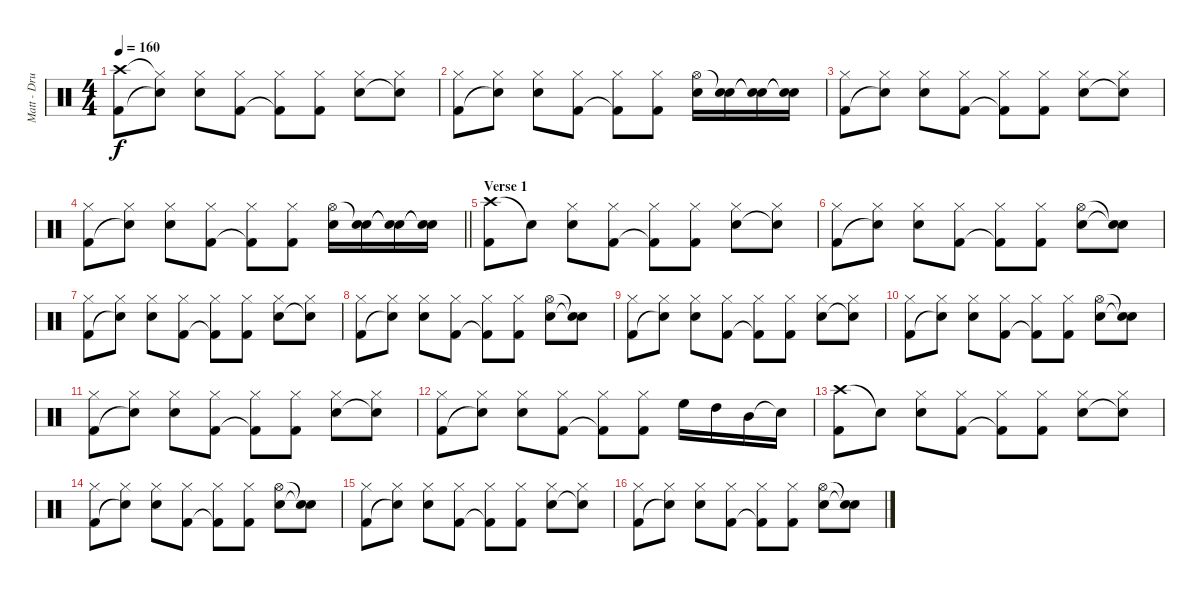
\track ("Matt - Drums" "Matt - Dru") {instrument percussion}
\staff {score}
\articulation defaults
\ts (4 4)
\tempo 160
\clef neutral
\ks c
("Crash high (hit)" "Kick (hit) 2").8{dy f} ("Hi-Hat (closed)"{t} "Snare (hit)"{t}).8 ("Hi-Hat (closed)" "Snare (hit) 2").8 ("Hi-Hat (closed)" "Kick (hit) 2").8 ("Hi-Hat (closed)" "Kick (hit) 2"{t}).8 ("Hi-Hat (closed)" "Kick (hit) 2").8 ("Hi-Hat (closed)" "Snare (hit) 2").8 ("Hi-Hat (closed)" "Snare (hit)"{t}).8 |
("Hi-Hat (closed)" "Kick (hit) 2").8 ("Hi-Hat (closed)" "Snare (hit)"{t}).8 ("Hi-Hat (closed)" "Snare (hit) 2").8 ("Hi-Hat (closed)" "Kick (hit) 2").8 ("Hi-Hat (closed)" "Kick (hit) 2"{t}).8 ("Hi-Hat (closed)" "Kick (hit) 2").8 ("Hi-Hat (open)" "Snare (hit) 2").16 ("Snare (hit)"{t} "Snare (hit) 2").16 ("Snare (hit)"{t} "Snare (hit) 2"{t}).16 ("Snare (hit)"{t} "Snare (hit) 2"{t}).16 |
("Hi-Hat (closed)" "Kick (hit) 2").8 ("Hi-Hat (closed)" "Snare (hit)"{t}).8 ("Hi-Hat (closed)" "Snare (hit) 2").8 ("Hi-Hat (closed)" "Kick (hit) 2").8 ("Hi-Hat (closed)" "Kick (hit) 2"{t}).8 ("Hi-Hat (closed)" "Kick (hit) 2").8 ("Hi-Hat (closed)" "Snare (hit) 2").8 ("Hi-Hat (closed)" "Snare (hit)"{t}).8 |
\barLineRight lightlight
("Hi-Hat (closed)" "Kick (hit) 2").8 ("Hi-Hat (closed)" "Snare (hit)"{t}).8 ("Hi-Hat (closed)" "Snare (hit) 2").8 ("Hi-Hat (closed)" "Kick (hit) 2").8 ("Hi-Hat (closed)" "Kick (hit) 2"{t}).8 ("Hi-Hat (closed)" "Kick (hit) 2").8 ("Hi-Hat (open)" "Snare (hit) 2").16 ("Snare (hit)"{t} "Snare (hit) 2").16 ("Snare (hit)"{t} "Snare (hit) 2"{t}).16 ("Snare (hit)"{t} "Snare (hit) 2"{t}).16 |
\section ("" "Verse 1")
("Crash high (hit)" "Kick (hit) 2").8 "Snare (hit)"{t}.8 ("Hi-Hat (closed)" "Snare (hit) 2").8 ("Hi-Hat (closed)" "Kick (hit) 2").8 ("Hi-Hat (closed)" "Kick (hit) 2"{t}).8 ("Hi-Hat (closed)" "Kick (hit) 2").8 ("Hi-Hat (closed)" "Snare (hit) 2").8 ("Hi-Hat (closed)" "Snare (hit)"{t}).8 |
("Hi-Hat (closed)" "Kick (hit) 2").8 ("Hi-Hat (closed)" "Snare (hit)"{t}).8 ("Hi-Hat (closed)" "Snare (hit) 2").8 ("Hi-Hat (closed)" "Kick (hit) 2").8 ("Hi-Hat (closed)" "Kick (hit) 2"{t}).8 ("Hi-Hat (closed)" "Kick (hit) 2").8 ("Hi-Hat (open)" "Snare (hit) 2").8 ("Snare (hit)"{t} "Snare (hit)"{t}).8 |
("Hi-Hat (closed)" "Kick (hit) 2").8 ("Hi-Hat (closed)" "Snare (hit)"{t}).8 ("Hi-Hat (closed)" "Snare (hit) 2").8 ("Hi-Hat (closed)" "Kick (hit) 2").8 ("Hi-Hat (closed)" "Kick (hit) 2"{t}).8 ("Hi-Hat (closed)" "Kick (hit) 2").8 ("Hi-Hat (closed)" "Snare (hit) 2").8 ("Hi-Hat (closed)" "Snare (hit)"{t}).8 |
("Hi-Hat (closed)" "Kick (hit) 2").8 ("Hi-Hat (closed)" "Snare (hit)"{t}).8 ("Hi-Hat (closed)" "Snare (hit) 2").8 ("Hi-Hat (closed)" "Kick (hit) 2").8 ("Hi-Hat (closed)" "Kick (hit) 2"{t}).8 ("Hi-Hat (closed)" "Kick (hit) 2").8 ("Hi-Hat (open)" "Snare (hit) 2").8 ("Snare (hit)"{t} "Snare (hit)"{t}).8 |
("Hi-Hat (closed)" "Kick (hit) 2").8 ("Hi-Hat (closed)" "Snare (hit)"{t}).8 ("Hi-Hat (closed)" "Snare (hit) 2").8 ("Hi-Hat (closed)" "Kick (hit) 2").8 ("Hi-Hat (closed)" "Kick (hit) 2"{t}).8 ("Hi-Hat (closed)" "Kick (hit) 2").8 ("Hi-Hat (closed)" "Snare (hit) 2").8 ("Hi-Hat (closed)" "Snare (hit)"{t}).8 |
("Hi-Hat (closed)" "Kick (hit) 2").8 ("Hi-Hat (closed)" "Snare (hit)"{t}).8 ("Hi-Hat (closed)" "Snare (hit) 2").8 ("Hi-Hat (closed)" "Kick (hit) 2").8 ("Hi-Hat (closed)" "Kick (hit) 2"{t}).8 ("Hi-Hat (closed)" "Kick (hit) 2").8 ("Hi-Hat (open)" "Snare (hit) 2").8 ("Snare (hit)"{t} "Snare (hit)"{t}).8 |
("Hi-Hat (closed)" "Kick (hit) 2").8 ("Hi-Hat (closed)" "Snare (hit)"{t}).8 ("Hi-Hat (closed)" "Snare (hit) 2").8 ("Hi-Hat (closed)" "Kick (hit) 2").8 ("Hi-Hat (closed)" "Kick (hit) 2"{t}).8 ("Hi-Hat (closed)" "Kick (hit) 2").8 ("Hi-Hat (closed)" "Snare (hit) 2").8 ("Hi-Hat (closed)" "Snare (hit)"{t}).8 |
("Hi-Hat (closed)" "Kick (hit) 2").8 ("Hi-Hat (closed)" "Snare (hit)"{t}).8 ("Hi-Hat (closed)" "Snare (hit) 2").8 ("Hi-Hat (closed)" "Kick (hit) 2").8 ("Hi-Hat (closed)" "Kick (hit) 2"{t}).8 ("Hi-Hat (closed)" "Kick (hit) 2").8 "High Floor Tom (hit)".16 "High Tom (hit)".16 "Mid Tom (hit)".16 "Snare (hit)"{t}.16 |
("Crash high (hit)" "Kick (hit) 2").8 "Snare (hit)"{t}.8 ("Hi-Hat (closed)" "Snare (hit) 2").8 ("Hi-Hat (closed)" "Kick (hit) 2").8 ("Hi-Hat (closed)" "Kick (hit) 2"{t}).8 ("Hi-Hat (closed)" "Kick (hit) 2").8 ("Hi-Hat (closed)" "Snare (hit) 2").8 ("Hi-Hat (closed)" "Snare (hit)"{t}).8 |
("Hi-Hat (closed)" "Kick (hit) 2").8 ("Hi-Hat (closed)" "Snare (hit)"{t}).8 ("Hi-Hat (closed)" "Snare (hit) 2").8 ("Hi-Hat (closed)" "Kick (hit) 2").8 ("Hi-Hat (closed)" "Kick (hit) 2"{t}).8 ("Hi-Hat (closed)" "Kick (hit) 2").8 ("Hi-Hat (open)" "Snare (hit) 2").8 ("Snare (hit)"{t} "Snare (hit)"{t}).8 |
("Hi-Hat (closed)" "Kick (hit) 2").8 ("Hi-Hat (closed)" "Snare (hit)"{t}).8 ("Hi-Hat (closed)" "Snare (hit) 2").8 ("Hi-Hat (closed)" "Kick (hit) 2").8 ("Hi-Hat (closed)" "Kick (hit) 2"{t}).8 ("Hi-Hat (closed)" "Kick (hit) 2").8 ("Hi-Hat (closed)" "Snare (hit) 2").8 ("Hi-Hat (closed)" "Snare (hit)"{t}).8 |
("Hi-Hat (closed)" "Kick (hit) 2").8 ("Hi-Hat (closed)" "Snare (hit)"{t}).8 ("Hi-Hat (closed)" "Snare (hit) 2").8 ("Hi-Hat (closed)" "Kick (hit) 2").8 ("Hi-Hat (closed)" "Kick (hit) 2"{t}).8 ("Hi-Hat (closed)" "Kick (hit) 2").8 ("Hi-Hat (open)" "Snare (hit) 2").8 ("Snare (hit)"{t} "Snare (hit)"{t}).8
